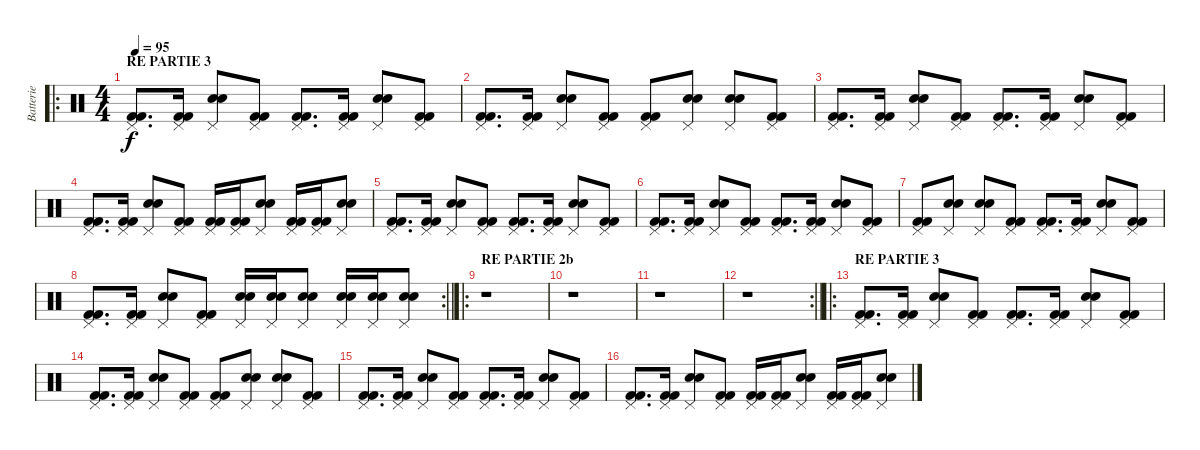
\track ("Batterie" "Batterie") {instrument percussion}
\staff {score}
\articulation defaults
\ro
\ts (4 4)
\section ("" "RE PARTIE 3")
\tempo 95
\clef neutral
\ks c
("Pedal Hi-Hat (hit)" "Kick (hit) 2" "Kick (hit) 2").8{d dy f} ("Pedal Hi-Hat (hit)" "Kick (hit) 2" "Kick (hit) 2").16 ("Pedal Hi-Hat (hit)" "Electric Snare (hit)" "Electric Snare (hit)").8 ("Pedal Hi-Hat (hit)" "Kick (hit) 2" "Kick (hit) 2").8 ("Pedal Hi-Hat (hit)" "Kick (hit) 2" "Kick (hit) 2").8{d} ("Pedal Hi-Hat (hit)" "Kick (hit) 2" "Kick (hit) 2").16 ("Pedal Hi-Hat (hit)" "Electric Snare (hit)" "Electric Snare (hit)").8 ("Pedal Hi-Hat (hit)" "Kick (hit) 2" "Kick (hit) 2").8 |
("Pedal Hi-Hat (hit)" "Kick (hit) 2" "Kick (hit) 2").8{d} ("Pedal Hi-Hat (hit)" "Kick (hit) 2" "Kick (hit) 2").16 ("Pedal Hi-Hat (hit)" "Electric Snare (hit)" "Electric Snare (hit)").8 ("Pedal Hi-Hat (hit)" "Kick (hit) 2" "Kick (hit) 2").8 ("Pedal Hi-Hat (hit)" "Kick (hit) 2" "Kick (hit) 2").8 ("Pedal Hi-Hat (hit)" "Electric Snare (hit)" "Electric Snare (hit)").8 ("Pedal Hi-Hat (hit)" "Electric Snare (hit)" "Electric Snare (hit)").8 ("Pedal Hi-Hat (hit)" "Kick (hit) 2" "Kick (hit) 2").8 |
("Pedal Hi-Hat (hit)" "Kick (hit) 2" "Kick (hit) 2").8{d} ("Pedal Hi-Hat (hit)" "Kick (hit) 2" "Kick (hit) 2").16 ("Pedal Hi-Hat (hit)" "Electric Snare (hit)" "Electric Snare (hit)").8 ("Pedal Hi-Hat (hit)" "Kick (hit) 2" "Kick (hit) 2").8 ("Pedal Hi-Hat (hit)" "Kick (hit) 2" "Kick (hit) 2").8{d} ("Pedal Hi-Hat (hit)" "Kick (hit) 2" "Kick (hit) 2").16 ("Pedal Hi-Hat (hit)" "Electric Snare (hit)" "Electric Snare (hit)").8 ("Pedal Hi-Hat (hit)" "Kick (hit) 2" "Kick (hit) 2").8 |
("Pedal Hi-Hat (hit)" "Kick (hit) 2" "Kick (hit) 2").8{d} ("Pedal Hi-Hat (hit)" "Kick (hit) 2" "Kick (hit) 2").16 ("Pedal Hi-Hat (hit)" "Electric Snare (hit)" "Electric Snare (hit)").8 ("Pedal Hi-Hat (hit)" "Kick (hit) 2" "Kick (hit) 2").8 ("Pedal Hi-Hat (hit)" "Kick (hit) 2" "Kick (hit) 2").16 ("Pedal Hi-Hat (hit)" "Kick (hit) 2" "Kick (hit) 2").16 ("Pedal Hi-Hat (hit)" "Electric Snare (hit)" "Electric Snare (hit)").8 ("Pedal Hi-Hat (hit)" "Kick (hit) 2" "Kick (hit) 2").16 ("Pedal Hi-Hat (hit)" "Kick (hit) 2" "Kick (hit) 2").16 ("Pedal Hi-Hat (hit)" "Electric Snare (hit)" "Electric Snare (hit)").8 |
("Pedal Hi-Hat (hit)" "Kick (hit) 2" "Kick (hit) 2").8{d} ("Pedal Hi-Hat (hit)" "Kick (hit) 2" "Kick (hit) 2").16 ("Pedal Hi-Hat (hit)" "Electric Snare (hit)" "Electric Snare (hit)").8 ("Pedal Hi-Hat (hit)" "Kick (hit) 2" "Kick (hit) 2").8 ("Pedal Hi-Hat (hit)" "Kick (hit) 2" "Kick (hit) 2").8{d} ("Pedal Hi-Hat (hit)" "Kick (hit) 2" "Kick (hit) 2").16 ("Pedal Hi-Hat (hit)" "Electric Snare (hit)" "Electric Snare (hit)").8 ("Pedal Hi-Hat (hit)" "Kick (hit) 2" "Kick (hit) 2").8 |
("Pedal Hi-Hat (hit)" "Kick (hit) 2" "Kick (hit) 2").8{d} ("Pedal Hi-Hat (hit)" "Kick (hit) 2" "Kick (hit) 2").16 ("Pedal Hi-Hat (hit)" "Electric Snare (hit)" "Electric Snare (hit)").8 ("Pedal Hi-Hat (hit)" "Kick (hit) 2" "Kick (hit) 2").8 ("Pedal Hi-Hat (hit)" "Kick (hit) 2" "Kick (hit) 2").8{d} ("Pedal Hi-Hat (hit)" "Kick (hit) 2" "Kick (hit) 2").16 ("Pedal Hi-Hat (hit)" "Electric Snare (hit)" "Electric Snare (hit)").8 ("Pedal Hi-Hat (hit)" "Kick (hit) 2" "Kick (hit) 2").8 |
("Pedal Hi-Hat (hit)" "Kick (hit) 2" "Kick (hit) 2").8 ("Pedal Hi-Hat (hit)" "Electric Snare (hit)" "Electric Snare (hit)").8 ("Pedal Hi-Hat (hit)" "Electric Snare (hit)" "Electric Snare (hit)").8 ("Pedal Hi-Hat (hit)" "Kick (hit) 2" "Kick (hit) 2").8 ("Pedal Hi-Hat (hit)" "Kick (hit) 2" "Kick (hit) 2").8{d} ("Pedal Hi-Hat (hit)" "Kick (hit) 2" "Kick (hit) 2").16 ("Pedal Hi-Hat (hit)" "Electric Snare (hit)" "Electric Snare (hit)").8 ("Pedal Hi-Hat (hit)" "Kick (hit) 2" "Kick (hit) 2").8 |
\rc 2
\barLineRight lightlight
("Pedal Hi-Hat (hit)" "Kick (hit) 2" "Kick (hit) 2").8{d} ("Pedal Hi-Hat (hit)" "Kick (hit) 2" "Kick (hit) 2").16 ("Pedal Hi-Hat (hit)" "Electric Snare (hit)" "Electric Snare (hit)").8 ("Pedal Hi-Hat (hit)" "Kick (hit) 2" "Kick (hit) 2").8 ("Pedal Hi-Hat (hit)" "Electric Snare (hit)" "Electric Snare (hit)").16 ("Pedal Hi-Hat (hit)" "Electric Snare (hit)" "Electric Snare (hit)").16 ("Pedal Hi-Hat (hit)" "Electric Snare (hit)" "Electric Snare (hit)").8 ("Pedal Hi-Hat (hit)" "Electric Snare (hit)" "Electric Snare (hit)").16 ("Pedal Hi-Hat (hit)" "Electric Snare (hit)" "Electric Snare (hit)").16 ("Pedal Hi-Hat (hit)" "Electric Snare (hit)" "Electric Snare (hit)").8 |
\ro
\section ("" "RE PARTIE 2b")
r.1 |
r.1 |
r.1 |
\rc 2
\barLineRight lightlight
r.1 |
\ro
\section ("" "RE PARTIE 3")
("Pedal Hi-Hat (hit)" "Kick (hit) 2" "Kick (hit) 2").8{d} ("Pedal Hi-Hat (hit)" "Kick (hit) 2" "Kick (hit) 2").16 ("Pedal Hi-Hat (hit)" "Electric Snare (hit)" "Electric Snare (hit)").8 ("Pedal Hi-Hat (hit)" "Kick (hit) 2" "Kick (hit) 2").8 ("Pedal Hi-Hat (hit)" "Kick (hit) 2" "Kick (hit) 2").8{d} ("Pedal Hi-Hat (hit)" "Kick (hit) 2" "Kick (hit) 2").16 ("Pedal Hi-Hat (hit)" "Electric Snare (hit)" "Electric Snare (hit)").8 ("Pedal Hi-Hat (hit)" "Kick (hit) 2" "Kick (hit) 2").8 |
("Pedal Hi-Hat (hit)" "Kick (hit) 2" "Kick (hit) 2").8{d} ("Pedal Hi-Hat (hit)" "Kick (hit) 2" "Kick (hit) 2").16 ("Pedal Hi-Hat (hit)" "Electric Snare (hit)" "Electric Snare (hit)").8 ("Pedal Hi-Hat (hit)" "Kick (hit) 2" "Kick (hit) 2").8 ("Pedal Hi-Hat (hit)" "Kick (hit) 2" "Kick (hit) 2").8 ("Pedal Hi-Hat (hit)" "Electric Snare (hit)" "Electric Snare (hit)").8 ("Pedal Hi-Hat (hit)" "Electric Snare (hit)" "Electric Snare (hit)").8 ("Pedal Hi-Hat (hit)" "Kick (hit) 2" "Kick (hit) 2").8 |
("Pedal Hi-Hat (hit)" "Kick (hit) 2" "Kick (hit) 2").8{d} ("Pedal Hi-Hat (hit)" "Kick (hit) 2" "Kick (hit) 2").16 ("Pedal Hi-Hat (hit)" "Electric Snare (hit)" "Electric Snare (hit)").8 ("Pedal Hi-Hat (hit)" "Kick (hit) 2" "Kick (hit) 2").8 ("Pedal Hi-Hat (hit)" "Kick (hit) 2" "Kick (hit) 2").8{d} ("Pedal Hi-Hat (hit)" "Kick (hit) 2" "Kick (hit) 2").16 ("Pedal Hi-Hat (hit)" "Electric Snare (hit)" "Electric Snare (hit)").8 ("Pedal Hi-Hat (hit)" "Kick (hit) 2" "Kick (hit) 2").8 |
("Pedal Hi-Hat (hit)" "Kick (hit) 2" "Kick (hit) 2").8{d} ("Pedal Hi-Hat (hit)" "Kick (hit) 2" "Kick (hit) 2").16 ("Pedal Hi-Hat (hit)" "Electric Snare (hit)" "Electric Snare (hit)").8 ("Pedal Hi-Hat (hit)" "Kick (hit) 2" "Kick (hit) 2").8 ("Pedal Hi-Hat (hit)" "Kick (hit) 2" "Kick (hit) 2").16 ("Pedal Hi-Hat (hit)" "Kick (hit) 2" "Kick (hit) 2").16 ("Pedal Hi-Hat (hit)" "Electric Snare (hit)" "Electric Snare (hit)").8 ("Pedal Hi-Hat (hit)" "Kick (hit) 2" "Kick (hit) 2").16 ("Pedal Hi-Hat (hit)" "Kick (hit) 2" "Kick (hit) 2").16 ("Pedal Hi-Hat (hit)" "Electric Snare (hit)" "Electric Snare (hit)").8
